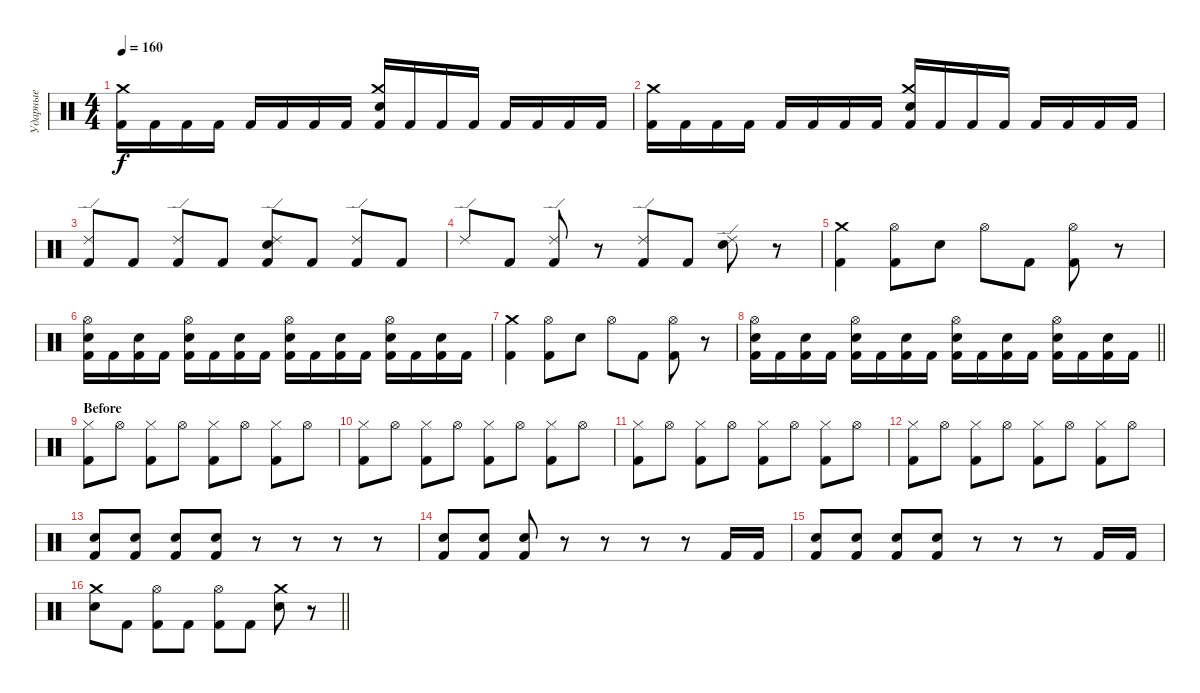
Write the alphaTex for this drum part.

\track ("Ударные" "Ударные") {instrument percussion}
\staff {score}
\articulation defaults
\ts (4 4)
\tempo 160
\clef neutral
\ks c
("Kick (hit) 2" "Crash medium (hit)").16{dy f} "Kick (hit) 2".16 "Kick (hit) 2".16 "Kick (hit) 2".16 "Kick (hit) 2".16 "Kick (hit) 2".16 "Kick (hit) 2".16 "Kick (hit) 2".16 ("Kick (hit) 2" "Crash medium (hit)" "Snare (hit) 2").16 "Kick (hit) 2".16 "Kick (hit) 2".16 "Kick (hit) 2".16 "Kick (hit) 2".16 "Kick (hit) 2".16 "Kick (hit) 2".16 "Kick (hit) 2".16 |
("Kick (hit) 2" "Crash medium (hit)").16 "Kick (hit) 2".16 "Kick (hit) 2".16 "Kick (hit) 2".16 "Kick (hit) 2".16 "Kick (hit) 2".16 "Kick (hit) 2".16 "Kick (hit) 2".16 ("Kick (hit) 2" "Crash medium (hit)" "Snare (hit) 2").16 "Kick (hit) 2".16 "Kick (hit) 2".16 "Kick (hit) 2".16 "Kick (hit) 2".16 "Kick (hit) 2".16 "Kick (hit) 2".16 "Kick (hit) 2".16 |
("Kick (hit) 2" "Ride (edge) 2").8 "Kick (hit) 2".8 ("Kick (hit) 2" "Ride (edge) 2").8 "Kick (hit) 2".8 ("Kick (hit) 2" "Ride (edge) 2" "Snare (hit) 2").8 "Kick (hit) 2".8 ("Kick (hit) 2" "Ride (edge) 2").8 "Kick (hit) 2".8 |
"Ride (edge) 2".8 "Kick (hit) 2".8 ("Kick (hit) 2" "Ride (edge) 2").8 r.8 ("Kick (hit) 2" "Ride (edge) 2").8 "Kick (hit) 2".8 ("Snare (hit) 2" "Ride (edge) 2").8 r.8 |
("Kick (hit) 2" "Crash medium (hit)").4 ("Kick (hit) 2" "Hi-Hat (open)").8 "Snare (hit) 2".8 "Hi-Hat (open)".8 "Kick (hit) 2".8 ("Kick (hit) 2" "Hi-Hat (open)").8 r.8 |
("Kick (hit) 2" "Hi-Hat (open)" "Snare (hit) 2").16 "Kick (hit) 2".16 ("Kick (hit) 2" "Snare (hit) 2").16 "Kick (hit) 2".16 ("Kick (hit) 2" "Hi-Hat (open)" "Snare (hit) 2").16 "Kick (hit) 2".16 ("Kick (hit) 2" "Snare (hit) 2").16 "Kick (hit) 2".16 ("Kick (hit) 2" "Hi-Hat (open)" "Snare (hit) 2").16 "Kick (hit) 2".16 ("Kick (hit) 2" "Snare (hit) 2").16 "Kick (hit) 2".16 ("Kick (hit) 2" "Hi-Hat (open)" "Snare (hit) 2").16 "Kick (hit) 2".16 ("Kick (hit) 2" "Snare (hit) 2").16 "Kick (hit) 2".16 |
("Kick (hit) 2" "Crash medium (hit)").4 ("Kick (hit) 2" "Hi-Hat (open)").8 "Snare (hit) 2".8 "Hi-Hat (open)".8 "Kick (hit) 2".8 ("Kick (hit) 2" "Hi-Hat (open)").8 r.8 |
\barLineRight lightlight
("Kick (hit) 2" "Hi-Hat (open)" "Snare (hit) 2").16 "Kick (hit) 2".16 ("Kick (hit) 2" "Snare (hit) 2").16 "Kick (hit) 2".16 ("Kick (hit) 2" "Hi-Hat (open)" "Snare (hit) 2").16 "Kick (hit) 2".16 ("Kick (hit) 2" "Snare (hit) 2").16 "Kick (hit) 2".16 ("Kick (hit) 2" "Hi-Hat (open)" "Snare (hit) 2").16 "Kick (hit) 2".16 ("Kick (hit) 2" "Snare (hit) 2").16 "Kick (hit) 2".16 ("Kick (hit) 2" "Hi-Hat (open)" "Snare (hit) 2").16 "Kick (hit) 2".16 ("Kick (hit) 2" "Snare (hit) 2").16 "Kick (hit) 2".16 |
\section ("" "Before")
("Hi-Hat (closed)" "Kick (hit) 2").8 "Hi-Hat (open)".8 ("Hi-Hat (closed)" "Kick (hit) 2").8 "Hi-Hat (open)".8 ("Hi-Hat (closed)" "Kick (hit) 2").8 "Hi-Hat (open)".8 ("Hi-Hat (closed)" "Kick (hit) 2").8 "Hi-Hat (open)".8 |
("Hi-Hat (closed)" "Kick (hit) 2").8 "Hi-Hat (open)".8 ("Hi-Hat (closed)" "Kick (hit) 2").8 "Hi-Hat (open)".8 ("Hi-Hat (closed)" "Kick (hit) 2").8 "Hi-Hat (open)".8 ("Hi-Hat (closed)" "Kick (hit) 2").8 "Hi-Hat (open)".8 |
("Hi-Hat (closed)" "Kick (hit) 2").8 "Hi-Hat (open)".8 ("Hi-Hat (closed)" "Kick (hit) 2").8 "Hi-Hat (open)".8 ("Hi-Hat (closed)" "Kick (hit) 2").8 "Hi-Hat (open)".8 ("Hi-Hat (closed)" "Kick (hit) 2").8 "Hi-Hat (open)".8 |
("Hi-Hat (closed)" "Kick (hit) 2").8 "Hi-Hat (open)".8 ("Hi-Hat (closed)" "Kick (hit) 2").8 "Hi-Hat (open)".8 ("Hi-Hat (closed)" "Kick (hit) 2").8 "Hi-Hat (open)".8 ("Hi-Hat (closed)" "Kick (hit) 2").8 "Hi-Hat (open)".8 |
("Kick (hit) 2" "Snare (hit) 2").8 ("Kick (hit) 2" "Snare (hit) 2").8 ("Kick (hit) 2" "Snare (hit) 2").8 ("Kick (hit) 2" "Snare (hit) 2").8 r.8 r.8 r.8 r.8 |
("Kick (hit) 2" "Snare (hit) 2").8 ("Kick (hit) 2" "Snare (hit) 2").8 ("Kick (hit) 2" "Snare (hit) 2").8 r.8 r.8 r.8 r.8 "Kick (hit) 2".16 "Kick (hit) 2".16 |
("Kick (hit) 2" "Snare (hit) 2").8 ("Kick (hit) 2" "Snare (hit) 2").8 ("Kick (hit) 2" "Snare (hit) 2").8 ("Kick (hit) 2" "Snare (hit) 2").8 r.8 r.8 r.8 "Kick (hit) 2".16 "Kick (hit) 2".16 |
\barLineRight lightlight
("Snare (hit) 2" "Crash medium (hit)").8 "Kick (hit) 2".8 ("Kick (hit) 2" "Hi-Hat (open)").8 "Kick (hit) 2".8 ("Kick (hit) 2" "Hi-Hat (open)").8 "Kick (hit) 2".8 ("Crash medium (hit)" "Snare (hit) 2").8 r.8
